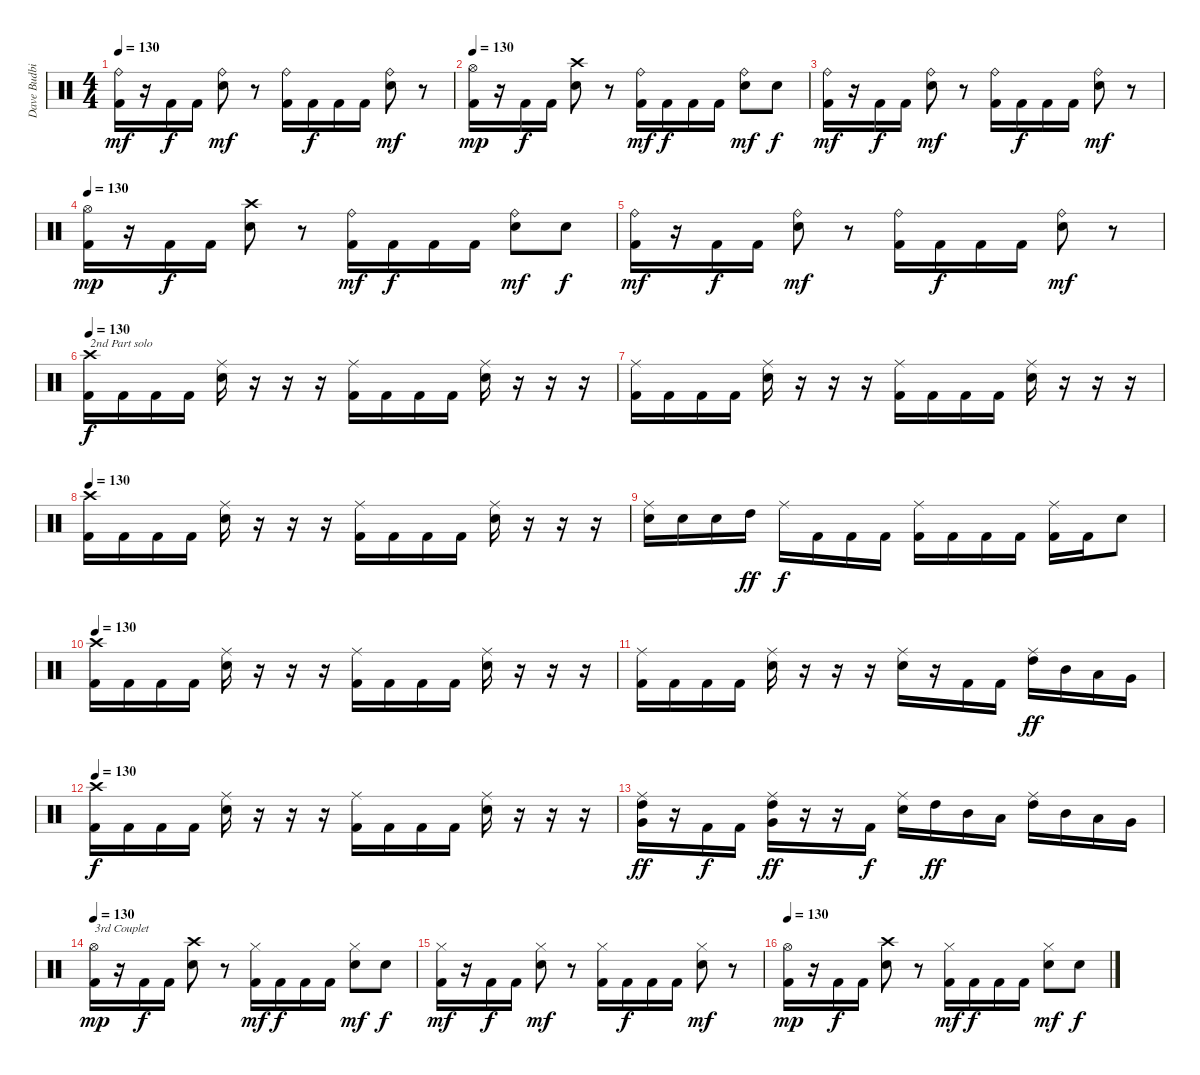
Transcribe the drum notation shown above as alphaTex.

\track ("Dave Budbill" "Dave Budbi") {instrument percussion}
\staff {score}
\articulation defaults
\ts (4 4)
\tempo 130
\clef neutral
\ks c
("Ride (bell)" "Kick (hit) 2").16{dy mf} r.16 "Kick (hit) 2".16{dy f} "Kick (hit) 2".16 ("Ride (bell)" "Snare (hit) 2").8{dy mf} r.8 ("Ride (bell)" "Kick (hit) 2").16 "Kick (hit) 2".16{dy f} "Kick (hit) 2".16 "Kick (hit) 2".16 ("Ride (bell)" "Snare (hit) 2").8{dy mf} r.8 |
\tempo 130
("Hi-Hat (open)" "Kick (hit) 2").16{dy mp} r.16 "Kick (hit) 2".16{dy f} "Kick (hit) 2".16 ("Crash high (hit)" "Snare (hit) 2").8 r.8 ("Ride (bell)" "Kick (hit) 2").16{dy mf} "Kick (hit) 2".16{dy f} "Kick (hit) 2".16 "Kick (hit) 2".16 ("Ride (bell)" "Snare (hit) 2").8{dy mf} "Snare (hit) 2".8{dy f} |
("Ride (bell)" "Kick (hit) 2").16{dy mf} r.16 "Kick (hit) 2".16{dy f} "Kick (hit) 2".16 ("Ride (bell)" "Snare (hit) 2").8{dy mf} r.8 ("Ride (bell)" "Kick (hit) 2").16 "Kick (hit) 2".16{dy f} "Kick (hit) 2".16 "Kick (hit) 2".16 ("Ride (bell)" "Snare (hit) 2").8{dy mf} r.8 |
\tempo 130
("Hi-Hat (open)" "Kick (hit) 2").16{dy mp} r.16 "Kick (hit) 2".16{dy f} "Kick (hit) 2".16 ("Crash high (hit)" "Snare (hit) 2").8 r.8 ("Ride (bell)" "Kick (hit) 2").16{dy mf} "Kick (hit) 2".16{dy f} "Kick (hit) 2".16 "Kick (hit) 2".16 ("Ride (bell)" "Snare (hit) 2").8{dy mf} "Snare (hit) 2".8{dy f} |
("Ride (bell)" "Kick (hit) 2").16{dy mf} r.16 "Kick (hit) 2".16{dy f} "Kick (hit) 2".16 ("Ride (bell)" "Snare (hit) 2").8{dy mf} r.8 ("Ride (bell)" "Kick (hit) 2").16 "Kick (hit) 2".16{dy f} "Kick (hit) 2".16 "Kick (hit) 2".16 ("Ride (bell)" "Snare (hit) 2").8{dy mf} r.8 |
\tempo 130
("Crash high (hit)" "Kick (hit) 2").16{txt "2nd Part solo" dy f} "Kick (hit) 2".16 "Kick (hit) 2".16 "Kick (hit) 2".16 ("Ride (middle)" "Snare (hit) 2").16 r.16 r.16 r.16 ("Ride (middle)" "Kick (hit) 2").16 "Kick (hit) 2".16 "Kick (hit) 2".16 "Kick (hit) 2".16 ("Ride (middle)" "Snare (hit) 2").16 r.16 r.16 r.16 |
("Ride (middle)" "Kick (hit) 2").16 "Kick (hit) 2".16 "Kick (hit) 2".16 "Kick (hit) 2".16 ("Ride (middle)" "Snare (hit) 2").16 r.16 r.16 r.16 ("Ride (middle)" "Kick (hit) 2").16 "Kick (hit) 2".16 "Kick (hit) 2".16 "Kick (hit) 2".16 ("Ride (middle)" "Snare (hit) 2").16 r.16 r.16 r.16 |
\tempo 130
("Crash high (hit)" "Kick (hit) 2").16 "Kick (hit) 2".16 "Kick (hit) 2".16 "Kick (hit) 2".16 ("Ride (middle)" "Snare (hit) 2").16 r.16 r.16 r.16 ("Ride (middle)" "Kick (hit) 2").16 "Kick (hit) 2".16 "Kick (hit) 2".16 "Kick (hit) 2".16 ("Ride (middle)" "Snare (hit) 2").16 r.16 r.16 r.16 |
("Ride (middle)" "Snare (hit) 2").16 "Snare (hit) 2".16 "Snare (hit) 2".16 "High Tom (hit)".16{dy ff} "Ride (middle)".16{dy f} "Kick (hit) 2".16 "Kick (hit) 2".16 "Kick (hit) 2".16 ("Ride (middle)" "Kick (hit) 2").16 "Kick (hit) 2".16 "Kick (hit) 2".16 "Kick (hit) 2".16 ("Ride (middle)" "Kick (hit) 2").16 "Kick (hit) 2".16 "Electric Snare (hit)".8 |
\tempo 130
("Crash high (hit)" "Kick (hit) 2").16 "Kick (hit) 2".16 "Kick (hit) 2".16 "Kick (hit) 2".16 ("Ride (middle)" "Snare (hit) 2").16 r.16 r.16 r.16 ("Ride (middle)" "Kick (hit) 2").16 "Kick (hit) 2".16 "Kick (hit) 2".16 "Kick (hit) 2".16 ("Ride (middle)" "Snare (hit) 2").16 r.16 r.16 r.16 |
("Ride (middle)" "Kick (hit) 2").16 "Kick (hit) 2".16 "Kick (hit) 2".16 "Kick (hit) 2".16 ("Ride (middle)" "Snare (hit) 2").16 r.16 r.16 r.16 ("Ride (middle)" "Snare (hit) 2").16 r.16 "Kick (hit) 2".16 "Kick (hit) 2".16 ("Ride (middle)" "High Tom (hit)").16{dy ff} "Mid Tom (hit)".16 "Low Tom (hit)".16 "Very Low Tom (hit)".16 |
\tempo 130
("Crash high (hit)" "Kick (hit) 2").16{dy f} "Kick (hit) 2".16 "Kick (hit) 2".16 "Kick (hit) 2".16 ("Ride (middle)" "Snare (hit) 2").16 r.16 r.16 r.16 ("Ride (middle)" "Kick (hit) 2").16 "Kick (hit) 2".16 "Kick (hit) 2".16 "Kick (hit) 2".16 ("Ride (middle)" "Snare (hit) 2").16 r.16 r.16 r.16 |
("Ride (middle)" "Very Low Tom (hit)" "High Tom (hit)").16{dy ff} r.16 "Kick (hit) 2".16{dy f} "Kick (hit) 2".16 ("Ride (middle)" "Very Low Tom (hit)" "High Tom (hit)").16{dy ff} r.16 r.16 "Kick (hit) 2".16{dy f} ("Ride (middle)" "Snare (hit) 2").16 "High Tom (hit)".16{dy ff} "Mid Tom (hit)".16 "Low Tom (hit)".16 ("Ride (middle)" "High Tom (hit)").16 "Mid Tom (hit)".16 "Low Tom (hit)".16 "Very Low Tom (hit)".16 |
\tempo 130
("Hi-Hat (open)" "Kick (hit) 2").16{txt "3rd Couplet" dy mp} r.16 "Kick (hit) 2".16{dy f} "Kick (hit) 2".16 ("Crash high (hit)" "Snare (hit) 2").8 r.8 ("Hi-Hat (closed)" "Kick (hit) 2").16{dy mf} "Kick (hit) 2".16{dy f} "Kick (hit) 2".16 "Kick (hit) 2".16 ("Hi-Hat (closed)" "Snare (hit) 2").8{dy mf} "Snare (hit) 2".8{dy f} |
("Hi-Hat (closed)" "Kick (hit) 2").16{dy mf} r.16 "Kick (hit) 2".16{dy f} "Kick (hit) 2".16 ("Hi-Hat (closed)" "Snare (hit) 2").8{dy mf} r.8 ("Hi-Hat (closed)" "Kick (hit) 2").16 "Kick (hit) 2".16{dy f} "Kick (hit) 2".16 "Kick (hit) 2".16 ("Hi-Hat (closed)" "Snare (hit) 2").8{dy mf} r.8 |
\tempo 130
("Hi-Hat (open)" "Kick (hit) 2").16{dy mp} r.16 "Kick (hit) 2".16{dy f} "Kick (hit) 2".16 ("Crash high (hit)" "Snare (hit) 2").8 r.8 ("Hi-Hat (closed)" "Kick (hit) 2").16{dy mf} "Kick (hit) 2".16{dy f} "Kick (hit) 2".16 "Kick (hit) 2".16 ("Hi-Hat (closed)" "Snare (hit) 2").8{dy mf} "Snare (hit) 2".8{dy f}
